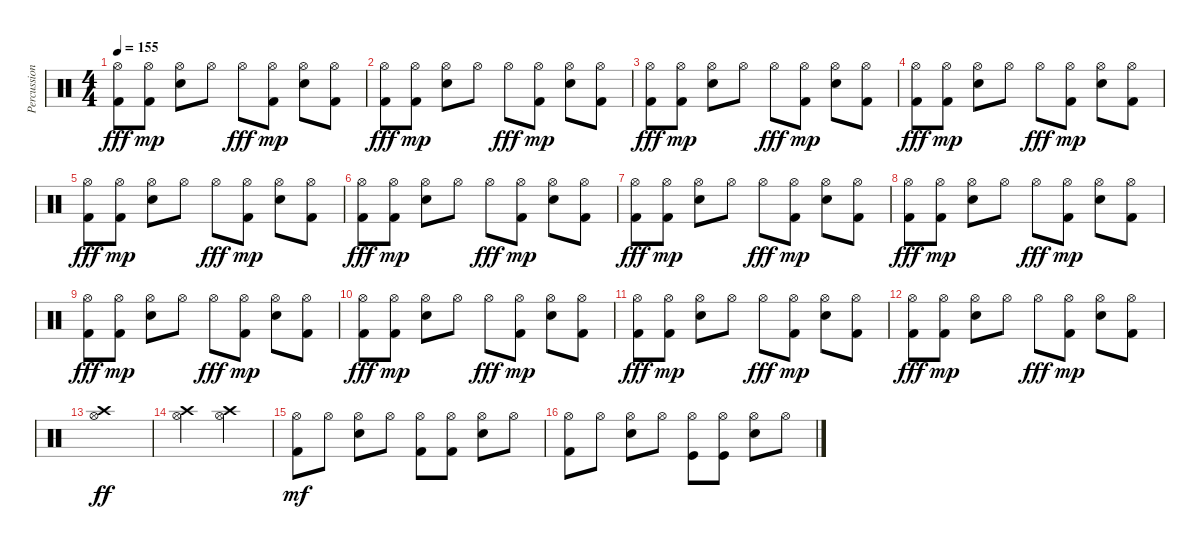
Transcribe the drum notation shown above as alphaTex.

\track ("Percussion" "Percussion") {instrument percussion}
\staff {score}
\articulation defaults
\ts (4 4)
\tempo 155
\clef neutral
\ks c
("Kick (hit) 2" "Hi-Hat (open)").8{dy fff} ("Kick (hit) 2" "Hi-Hat (open)").8{dy mp} ("Snare (hit) 2" "Hi-Hat (open)").8 "Hi-Hat (open)".8 "Hi-Hat (open)".8{dy fff} ("Kick (hit) 2" "Hi-Hat (open)").8{dy mp} ("Snare (hit) 2" "Hi-Hat (open)").8 ("Kick (hit) 2" "Hi-Hat (open)").8 |
("Kick (hit) 2" "Hi-Hat (open)").8{dy fff} ("Kick (hit) 2" "Hi-Hat (open)").8{dy mp} ("Snare (hit) 2" "Hi-Hat (open)").8 "Hi-Hat (open)".8 "Hi-Hat (open)".8{dy fff} ("Kick (hit) 2" "Hi-Hat (open)").8{dy mp} ("Snare (hit) 2" "Hi-Hat (open)").8 ("Kick (hit) 2" "Hi-Hat (open)").8 |
("Kick (hit) 2" "Hi-Hat (open)").8{dy fff} ("Kick (hit) 2" "Hi-Hat (open)").8{dy mp} ("Snare (hit) 2" "Hi-Hat (open)").8 "Hi-Hat (open)".8 "Hi-Hat (open)".8{dy fff} ("Kick (hit) 2" "Hi-Hat (open)").8{dy mp} ("Snare (hit) 2" "Hi-Hat (open)").8 ("Kick (hit) 2" "Hi-Hat (open)").8 |
("Kick (hit) 2" "Hi-Hat (open)").8{dy fff} ("Kick (hit) 2" "Hi-Hat (open)").8{dy mp} ("Snare (hit) 2" "Hi-Hat (open)").8 "Hi-Hat (open)".8 "Hi-Hat (open)".8{dy fff} ("Kick (hit) 2" "Hi-Hat (open)").8{dy mp} ("Snare (hit) 2" "Hi-Hat (open)").8 ("Kick (hit) 2" "Hi-Hat (open)").8 |
("Kick (hit) 2" "Hi-Hat (open)").8{dy fff} ("Kick (hit) 2" "Hi-Hat (open)").8{dy mp} ("Snare (hit) 2" "Hi-Hat (open)").8 "Hi-Hat (open)".8 "Hi-Hat (open)".8{dy fff} ("Kick (hit) 2" "Hi-Hat (open)").8{dy mp} ("Snare (hit) 2" "Hi-Hat (open)").8 ("Kick (hit) 2" "Hi-Hat (open)").8 |
("Kick (hit) 2" "Hi-Hat (open)").8{dy fff} ("Kick (hit) 2" "Hi-Hat (open)").8{dy mp} ("Snare (hit) 2" "Hi-Hat (open)").8 "Hi-Hat (open)".8 "Hi-Hat (open)".8{dy fff} ("Kick (hit) 2" "Hi-Hat (open)").8{dy mp} ("Snare (hit) 2" "Hi-Hat (open)").8 ("Kick (hit) 2" "Hi-Hat (open)").8 |
("Kick (hit) 2" "Hi-Hat (open)").8{dy fff} ("Kick (hit) 2" "Hi-Hat (open)").8{dy mp} ("Snare (hit) 2" "Hi-Hat (open)").8 "Hi-Hat (open)".8 "Hi-Hat (open)".8{dy fff} ("Kick (hit) 2" "Hi-Hat (open)").8{dy mp} ("Snare (hit) 2" "Hi-Hat (open)").8 ("Kick (hit) 2" "Hi-Hat (open)").8 |
("Kick (hit) 2" "Hi-Hat (open)").8{dy fff} ("Kick (hit) 2" "Hi-Hat (open)").8{dy mp} ("Snare (hit) 2" "Hi-Hat (open)").8 "Hi-Hat (open)".8 "Hi-Hat (open)".8{dy fff} ("Kick (hit) 2" "Hi-Hat (open)").8{dy mp} ("Snare (hit) 2" "Hi-Hat (open)").8 ("Kick (hit) 2" "Hi-Hat (open)").8 |
("Kick (hit) 2" "Hi-Hat (open)").8{dy fff} ("Kick (hit) 2" "Hi-Hat (open)").8{dy mp} ("Snare (hit) 2" "Hi-Hat (open)").8 "Hi-Hat (open)".8 "Hi-Hat (open)".8{dy fff} ("Kick (hit) 2" "Hi-Hat (open)").8{dy mp} ("Snare (hit) 2" "Hi-Hat (open)").8 ("Kick (hit) 2" "Hi-Hat (open)").8 |
("Kick (hit) 2" "Hi-Hat (open)").8{dy fff} ("Kick (hit) 2" "Hi-Hat (open)").8{dy mp} ("Snare (hit) 2" "Hi-Hat (open)").8 "Hi-Hat (open)".8 "Hi-Hat (open)".8{dy fff} ("Kick (hit) 2" "Hi-Hat (open)").8{dy mp} ("Snare (hit) 2" "Hi-Hat (open)").8 ("Kick (hit) 2" "Hi-Hat (open)").8 |
("Kick (hit) 2" "Hi-Hat (open)").8{dy fff} ("Kick (hit) 2" "Hi-Hat (open)").8{dy mp} ("Snare (hit) 2" "Hi-Hat (open)").8 "Hi-Hat (open)".8 "Hi-Hat (open)".8{dy fff} ("Kick (hit) 2" "Hi-Hat (open)").8{dy mp} ("Snare (hit) 2" "Hi-Hat (open)").8 ("Kick (hit) 2" "Hi-Hat (open)").8 |
("Kick (hit) 2" "Hi-Hat (open)").8{dy fff} ("Kick (hit) 2" "Hi-Hat (open)").8{dy mp} ("Snare (hit) 2" "Hi-Hat (open)").8 "Hi-Hat (open)".8 "Hi-Hat (open)".8{dy fff} ("Kick (hit) 2" "Hi-Hat (open)").8{dy mp} ("Snare (hit) 2" "Hi-Hat (open)").8 ("Kick (hit) 2" "Hi-Hat (open)").8 |
("Crash high (hit)" "Hi-Hat (open)").1{dy ff} |
("Crash high (hit)" "Hi-Hat (open)").2 ("Crash high (hit)" "Hi-Hat (open)").2 |
("Kick (hit) 2" "Hi-Hat (open)").8{dy mf} "Hi-Hat (open)".8 ("Snare (hit) 2" "Hi-Hat (open)").8 "Hi-Hat (open)".8 ("Kick (hit) 2" "Hi-Hat (open)").8 ("Kick (hit) 2" "Hi-Hat (open)").8 ("Snare (hit) 2" "Hi-Hat (open)").8 "Hi-Hat (open)".8 |
("Kick (hit) 2" "Hi-Hat (open)").8 "Hi-Hat (open)".8 ("Snare (hit) 2" "Hi-Hat (open)").8 "Hi-Hat (open)".8 ("Kick (hit)" "Hi-Hat (open)").8 ("Kick (hit)" "Hi-Hat (open)").8 ("Snare (hit) 2" "Hi-Hat (open)").8 "Hi-Hat (open)".8
